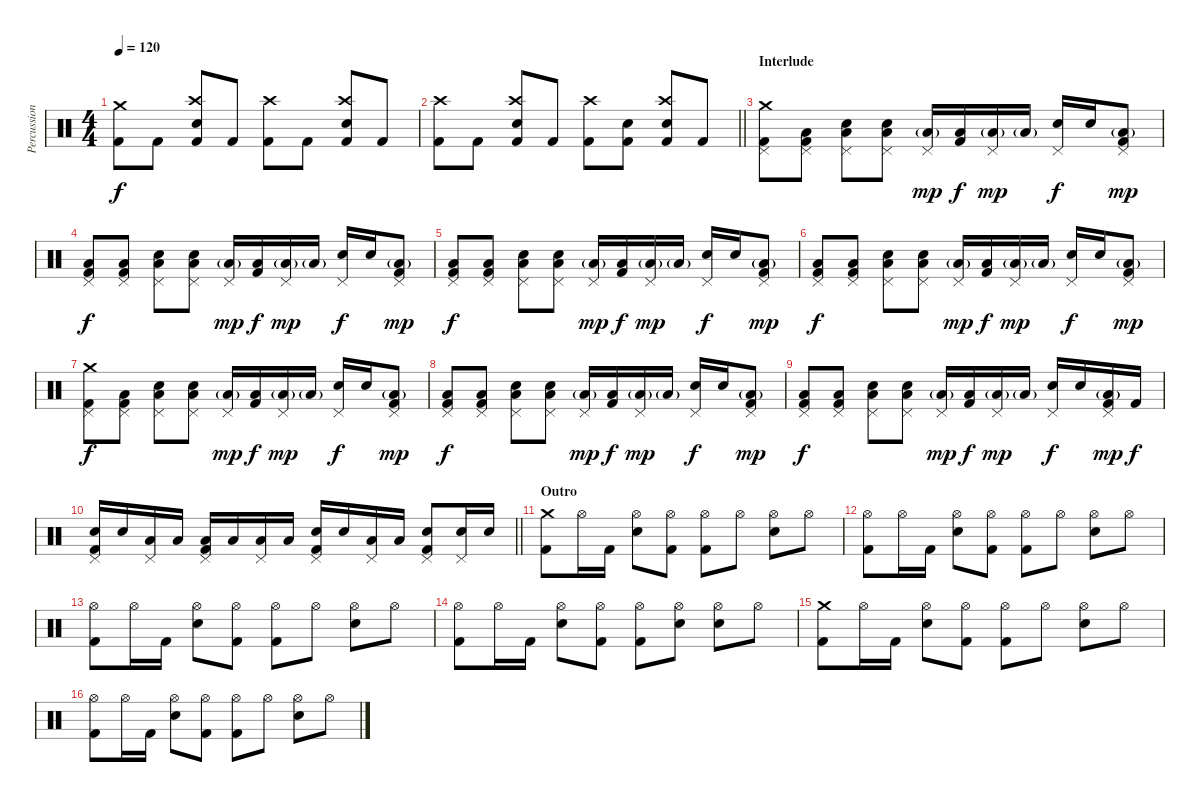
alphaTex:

\track ("Percussion" "Percussion") {instrument percussion}
\staff {score}
\articulation defaults
\ts (4 4)
\tempo 120
\clef neutral
\ks c
("Crash medium (hit)" "Kick (hit) 2").8{dy f} "Kick (hit) 2".8 ("Crash high (hit)" "Electric Snare (hit)" "Kick (hit) 2").8 "Kick (hit) 2".8 ("Crash high (hit)" "Kick (hit) 2").8 "Kick (hit) 2".8 ("Crash high (hit)" "Electric Snare (hit)" "Kick (hit) 2").8 "Kick (hit) 2".8 |
\barLineRight lightlight
("Crash high (hit)" "Kick (hit) 2").8 "Kick (hit) 2".8 ("Crash high (hit)" "Electric Snare (hit)" "Kick (hit) 2").8 "Kick (hit) 2".8 ("Crash high (hit)" "Kick (hit) 2").8 ("Electric Snare (hit)" "Kick (hit) 2").8 ("Crash high (hit)" "Electric Snare (hit)" "Kick (hit) 2").8 "Kick (hit) 2".8 |
\section ("" "Interlude")
("Pedal Hi-Hat (hit)" "Crash medium (hit)" "Kick (hit) 2").8 ("Pedal Hi-Hat (hit)" "Low Floor Tom (hit)" "Kick (hit) 2").8 ("Pedal Hi-Hat (hit)" "Low Floor Tom (hit)" "Electric Snare (hit)").8 ("Pedal Hi-Hat (hit)" "Low Floor Tom (hit)" "Electric Snare (hit)").8 ("Pedal Hi-Hat (hit)" "Low Floor Tom (hit)"{g}).16{dy mp} ("Low Tom (hit)" "Kick (hit) 2").16{dy f} ("Pedal Hi-Hat (hit)" "Low Tom (hit)"{g}).16{dy mp} "Low Tom (hit)"{g}.16 ("Pedal Hi-Hat (hit)" "Electric Snare (hit)").16{dy f} "Electric Snare (hit)".16 ("Pedal Hi-Hat (hit)" "Low Floor Tom (hit)"{g} "Kick (hit) 2").8{dy mp} |
("Pedal Hi-Hat (hit)" "Low Floor Tom (hit)" "Kick (hit) 2").8{dy f} ("Pedal Hi-Hat (hit)" "Low Floor Tom (hit)" "Kick (hit) 2").8 ("Pedal Hi-Hat (hit)" "Low Floor Tom (hit)" "Electric Snare (hit)").8 ("Pedal Hi-Hat (hit)" "Low Floor Tom (hit)" "Electric Snare (hit)").8 ("Pedal Hi-Hat (hit)" "Low Floor Tom (hit)"{g}).16{dy mp} ("Low Tom (hit)" "Kick (hit) 2").16{dy f} ("Pedal Hi-Hat (hit)" "Low Tom (hit)"{g}).16{dy mp} "Low Tom (hit)"{g}.16 ("Pedal Hi-Hat (hit)" "Electric Snare (hit)").16{dy f} "Electric Snare (hit)".16 ("Pedal Hi-Hat (hit)" "Low Floor Tom (hit)"{g} "Kick (hit) 2").8{dy mp} |
("Pedal Hi-Hat (hit)" "Low Floor Tom (hit)" "Kick (hit) 2").8{dy f} ("Pedal Hi-Hat (hit)" "Low Floor Tom (hit)" "Kick (hit) 2").8 ("Pedal Hi-Hat (hit)" "Low Floor Tom (hit)" "Electric Snare (hit)").8 ("Pedal Hi-Hat (hit)" "Low Floor Tom (hit)" "Electric Snare (hit)").8 ("Pedal Hi-Hat (hit)" "Low Floor Tom (hit)"{g}).16{dy mp} ("Low Tom (hit)" "Kick (hit) 2").16{dy f} ("Pedal Hi-Hat (hit)" "Low Tom (hit)"{g}).16{dy mp} "Low Tom (hit)"{g}.16 ("Pedal Hi-Hat (hit)" "Electric Snare (hit)").16{dy f} "Electric Snare (hit)".16 ("Pedal Hi-Hat (hit)" "Low Floor Tom (hit)"{g} "Kick (hit) 2").8{dy mp} |
("Pedal Hi-Hat (hit)" "Low Floor Tom (hit)" "Kick (hit) 2").8{dy f} ("Pedal Hi-Hat (hit)" "Low Floor Tom (hit)" "Kick (hit) 2").8 ("Pedal Hi-Hat (hit)" "Low Floor Tom (hit)" "Electric Snare (hit)").8 ("Pedal Hi-Hat (hit)" "Low Floor Tom (hit)" "Electric Snare (hit)").8 ("Pedal Hi-Hat (hit)" "Low Floor Tom (hit)"{g}).16{dy mp} ("Low Tom (hit)" "Kick (hit) 2").16{dy f} ("Pedal Hi-Hat (hit)" "Low Tom (hit)"{g}).16{dy mp} "Low Tom (hit)"{g}.16 ("Pedal Hi-Hat (hit)" "Electric Snare (hit)").16{dy f} "Electric Snare (hit)".16 ("Pedal Hi-Hat (hit)" "Low Floor Tom (hit)"{g} "Kick (hit) 2").8{dy mp} |
("Pedal Hi-Hat (hit)" "Crash medium (hit)" "Kick (hit) 2").8{dy f} ("Pedal Hi-Hat (hit)" "Low Floor Tom (hit)" "Kick (hit) 2").8 ("Pedal Hi-Hat (hit)" "Low Floor Tom (hit)" "Electric Snare (hit)").8 ("Pedal Hi-Hat (hit)" "Low Floor Tom (hit)" "Electric Snare (hit)").8 ("Pedal Hi-Hat (hit)" "Low Floor Tom (hit)"{g}).16{dy mp} ("Low Tom (hit)" "Kick (hit) 2").16{dy f} ("Pedal Hi-Hat (hit)" "Low Tom (hit)"{g}).16{dy mp} "Low Tom (hit)"{g}.16 ("Pedal Hi-Hat (hit)" "Electric Snare (hit)").16{dy f} "Electric Snare (hit)".16 ("Pedal Hi-Hat (hit)" "Low Floor Tom (hit)"{g} "Kick (hit) 2").8{dy mp} |
("Pedal Hi-Hat (hit)" "Low Floor Tom (hit)" "Kick (hit) 2").8{dy f} ("Pedal Hi-Hat (hit)" "Low Floor Tom (hit)" "Kick (hit) 2").8 ("Pedal Hi-Hat (hit)" "Low Floor Tom (hit)" "Electric Snare (hit)").8 ("Pedal Hi-Hat (hit)" "Low Floor Tom (hit)" "Electric Snare (hit)").8 ("Pedal Hi-Hat (hit)" "Low Floor Tom (hit)"{g}).16{dy mp} ("Low Tom (hit)" "Kick (hit) 2").16{dy f} ("Pedal Hi-Hat (hit)" "Low Tom (hit)"{g}).16{dy mp} "Low Tom (hit)"{g}.16 ("Pedal Hi-Hat (hit)" "Electric Snare (hit)").16{dy f} "Electric Snare (hit)".16 ("Pedal Hi-Hat (hit)" "Low Floor Tom (hit)"{g} "Kick (hit) 2").8{dy mp} |
("Pedal Hi-Hat (hit)" "Low Floor Tom (hit)" "Kick (hit) 2").8{dy f} ("Pedal Hi-Hat (hit)" "Low Floor Tom (hit)" "Kick (hit) 2").8 ("Pedal Hi-Hat (hit)" "Low Floor Tom (hit)" "Electric Snare (hit)").8 ("Pedal Hi-Hat (hit)" "Low Floor Tom (hit)" "Electric Snare (hit)").8 ("Pedal Hi-Hat (hit)" "Low Floor Tom (hit)"{g}).16{dy mp} ("Low Tom (hit)" "Kick (hit) 2").16{dy f} ("Pedal Hi-Hat (hit)" "Low Tom (hit)"{g}).16{dy mp} "Low Tom (hit)"{g}.16 ("Pedal Hi-Hat (hit)" "Electric Snare (hit)").16{dy f} "Electric Snare (hit)".16 ("Pedal Hi-Hat (hit)" "Low Floor Tom (hit)"{g} "Kick (hit) 2").16{dy mp} "Kick (hit) 2".16{dy f} |
\barLineRight lightlight
("Pedal Hi-Hat (hit)" "Electric Snare (hit)" "Kick (hit) 2").16 "Electric Snare (hit)".16 ("Pedal Hi-Hat (hit)" "Low Floor Tom (hit)").16 "Low Tom (hit)".16 ("Pedal Hi-Hat (hit)" "Low Floor Tom (hit)" "Kick (hit) 2").16 "Low Floor Tom (hit)".16 ("Pedal Hi-Hat (hit)" "Low Floor Tom (hit)").16 "Low Floor Tom (hit)".16 ("Pedal Hi-Hat (hit)" "Electric Snare (hit)" "Kick (hit) 2").16 "Electric Snare (hit)".16 ("Pedal Hi-Hat (hit)" "Low Floor Tom (hit)").16 "Low Floor Tom (hit)".16 ("Pedal Hi-Hat (hit)" "Electric Snare (hit)" "Kick (hit) 2").8 ("Pedal Hi-Hat (hit)" "Electric Snare (hit)").16 "Electric Snare (hit)".16 |
\section ("" "Outro")
("Crash medium (hit)" "Kick (hit) 2").8 "Hi-Hat (open)".16 "Kick (hit) 2".16 ("Hi-Hat (open)" "Electric Snare (hit)").8 ("Hi-Hat (open)" "Kick (hit) 2").8 ("Hi-Hat (open)" "Kick (hit) 2").8 "Hi-Hat (open)".8 ("Hi-Hat (open)" "Electric Snare (hit)").8 "Hi-Hat (open)".8 |
("Hi-Hat (open)" "Kick (hit) 2").8 "Hi-Hat (open)".16 "Kick (hit) 2".16 ("Hi-Hat (open)" "Electric Snare (hit)").8 ("Hi-Hat (open)" "Kick (hit) 2").8 ("Hi-Hat (open)" "Kick (hit) 2").8 "Hi-Hat (open)".8 ("Hi-Hat (open)" "Electric Snare (hit)").8 "Hi-Hat (open)".8 |
("Hi-Hat (open)" "Kick (hit) 2").8 "Hi-Hat (open)".16 "Kick (hit) 2".16 ("Hi-Hat (open)" "Electric Snare (hit)").8 ("Hi-Hat (open)" "Kick (hit) 2").8 ("Hi-Hat (open)" "Kick (hit) 2").8 "Hi-Hat (open)".8 ("Hi-Hat (open)" "Electric Snare (hit)").8 "Hi-Hat (open)".8 |
("Hi-Hat (open)" "Kick (hit) 2").8 "Hi-Hat (open)".16 "Kick (hit) 2".16 ("Hi-Hat (open)" "Electric Snare (hit)").8 ("Hi-Hat (open)" "Kick (hit) 2").8 ("Hi-Hat (open)" "Kick (hit) 2").8 ("Hi-Hat (open)" "Electric Snare (hit)").8 ("Hi-Hat (open)" "Electric Snare (hit)").8 "Hi-Hat (open)".8 |
("Crash medium (hit)" "Kick (hit) 2").8 "Hi-Hat (open)".16 "Kick (hit) 2".16 ("Hi-Hat (open)" "Electric Snare (hit)").8 ("Hi-Hat (open)" "Kick (hit) 2").8 ("Hi-Hat (open)" "Kick (hit) 2").8 "Hi-Hat (open)".8 ("Hi-Hat (open)" "Electric Snare (hit)").8 "Hi-Hat (open)".8 |
("Hi-Hat (open)" "Kick (hit) 2").8 "Hi-Hat (open)".16 "Kick (hit) 2".16 ("Hi-Hat (open)" "Electric Snare (hit)").8 ("Hi-Hat (open)" "Kick (hit) 2").8 ("Hi-Hat (open)" "Kick (hit) 2").8 "Hi-Hat (open)".8 ("Hi-Hat (open)" "Electric Snare (hit)").8 "Hi-Hat (open)".8
